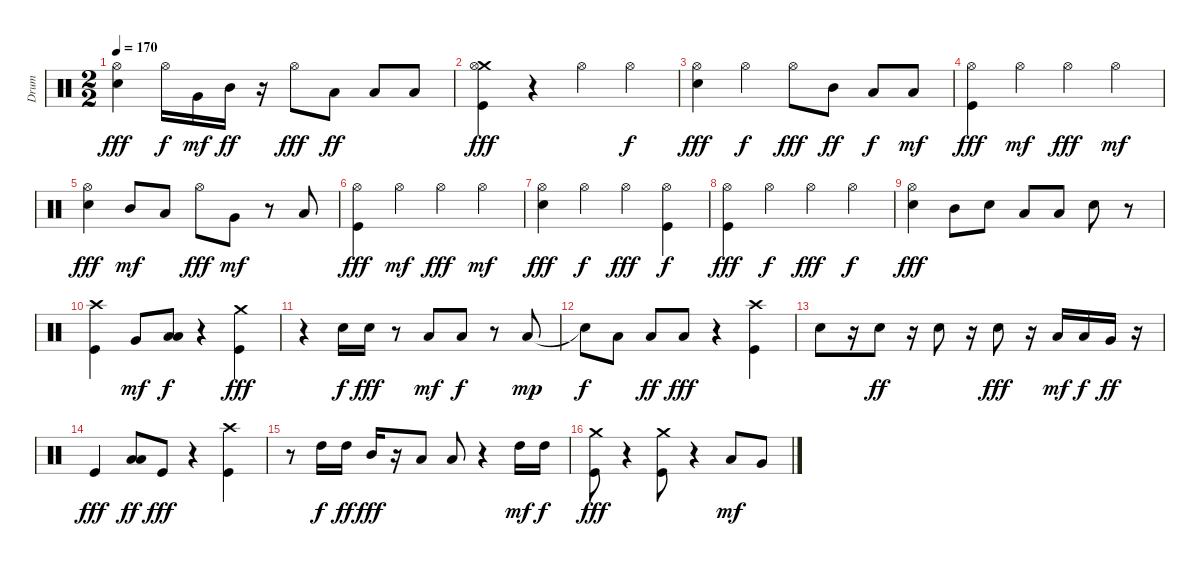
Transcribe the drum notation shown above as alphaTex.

\track ("Drum" "Drum") {instrument percussion}
\staff {score}
\articulation defaults
\ts (2 2)
\tempo 170
\clef neutral
\ks c
("Electric Snare (hit)" "Hi-Hat (open)").4{dy fff} "Hi-Hat (open)".16{dy f} "Very Low Tom (hit)".16{dy mf} "Mid Tom (hit)".16{dy ff} r.16 "Hi-Hat (open)".8{dy fff} "Low Tom (hit)".8{dy ff} "Low Floor Tom (hit)".8 "Low Floor Tom (hit)".8 |
("Crash medium (hit)" "Hi-Hat (open)" "Kick (hit)").4{dy fff} r.4 "Hi-Hat (open)".4 "Hi-Hat (open)".4{dy f} |
("Hi-Hat (open)" "Electric Snare (hit)").4{dy fff} "Hi-Hat (open)".4{dy f} "Hi-Hat (open)".8{dy fff} "Mid Tom (hit)".8{dy ff} "Low Tom (hit)".8{dy f} "Low Floor Tom (hit)".8{dy mf} |
("Kick (hit)" "Hi-Hat (open)").4{dy fff} "Hi-Hat (open)".4{dy mf} "Hi-Hat (open)".4{dy fff} "Hi-Hat (open)".4{dy mf} |
("Hi-Hat (open)" "Electric Snare (hit)").4{dy fff} "Mid Tom (hit)".8{dy mf} "Low Tom (hit)".8 "Hi-Hat (open)".8{dy fff} "Very Low Tom (hit)".8{dy mf} r.8 "Low Floor Tom (hit)".8 |
("Kick (hit)" "Hi-Hat (open)").4{dy fff} "Hi-Hat (open)".4{dy mf} "Hi-Hat (open)".4{dy fff} "Hi-Hat (open)".4{dy mf} |
("Hi-Hat (open)" "Electric Snare (hit)").4{dy fff} "Hi-Hat (open)".4{dy f} "Hi-Hat (open)".4{dy fff} ("Hi-Hat (open)" "Kick (hit)").4{dy f} |
("Hi-Hat (open)" "Kick (hit)").4{dy fff} "Hi-Hat (open)".4{dy f} "Hi-Hat (open)".4{dy fff} "Hi-Hat (open)".4{dy f} |
("Electric Snare (hit)" "Hi-Hat (open)").4{dy fff} "Mid Tom (hit)".8 "Electric Snare (hit)".8 "Low Floor Tom (hit)".8 "Low Floor Tom (hit)".8 "Electric Snare (hit)".8 r.8 |
("Crash high (hit)" "Kick (hit)").4 "Very Low Tom (hit)".8{dy mf} ("Low Tom (hit)" "Low Floor Tom (hit)").8{dy f} r.4 ("Crash medium (hit)" "Kick (hit)").4{dy fff} |
r.4 "Electric Snare (hit)".16{dy f} "Electric Snare (hit)".16{dy fff} r.8 "Low Tom (hit)".8{dy mf} "Low Tom (hit)".8{dy f} r.8 "Low Floor Tom (hit)".8{dy mp} |
"Snare (hit)"{t}.8{dy f} "Low Floor Tom (hit)".8 "Low Floor Tom (hit)".8{dy ff} "Low Floor Tom (hit)".8{dy fff} r.4 ("Crash high (hit)" "Kick (hit)").4 |
"Electric Snare (hit)".8 r.16 "Electric Snare (hit)".8{dy ff} r.16 "Electric Snare (hit)".8 r.16 "Electric Snare (hit)".8{dy fff} r.16 "Low Tom (hit)".16{dy mf} "Low Tom (hit)".16{dy f} "Very Low Tom (hit)".16{dy ff} r.16 |
"Kick (hit)".4{dy fff} ("Low Floor Tom (hit)" "Low Tom (hit)").8{dy ff} "Kick (hit)".8{dy fff} r.4 ("Kick (hit)" "Crash high (hit)").4 |
r.8 "High Tom (hit)".16{dy f} "High Tom (hit)".16{dy ff} "Mid Tom (hit)".16{dy fff} r.16 "Low Tom (hit)".8 "Low Floor Tom (hit)".8 r.4 "High Tom (hit)".16{dy mf} "High Tom (hit)".16{dy f} |
("Crash medium (hit)" "Kick (hit)").8{dy fff} r.4 ("Kick (hit)" "Crash medium (hit)").8 r.4 "Low Tom (hit)".8{dy mf} "Very Low Tom (hit)".8
